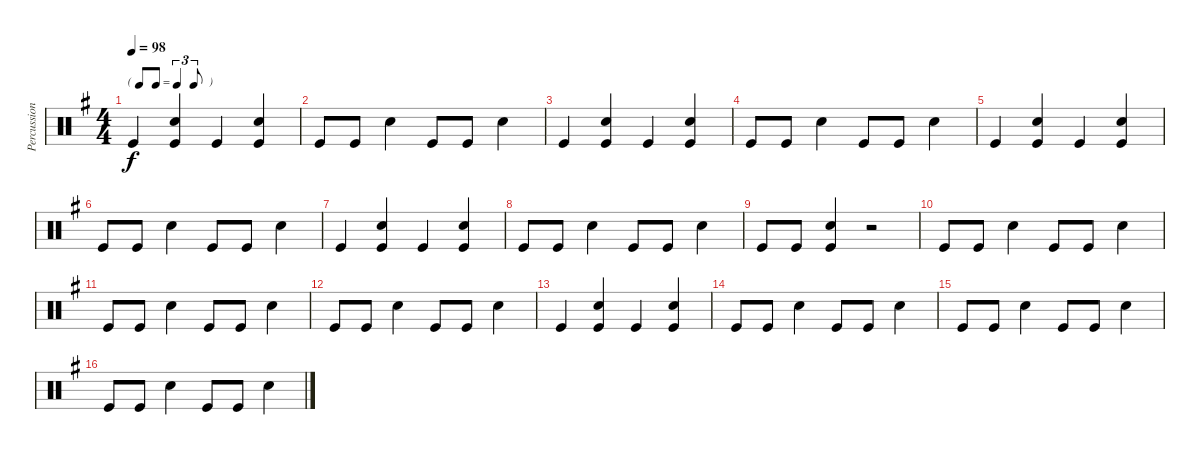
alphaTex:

\track ("Percussion" "Percussion") {instrument percussion}
\staff {score}
\articulation defaults
\ts (4 4)
\tf triplet8th
\tempo 98
\clef neutral
\ks g "Kick (hit)".4{dy f}
("Snare (hit) 2" "Kick (hit)").4 "Kick (hit)".4 ("Snare (hit) 2" "Kick (hit)").4 |
"Kick (hit)".8 "Kick (hit)".8 "Snare (hit) 2".4 "Kick (hit)".8 "Kick (hit)".8 "Snare (hit) 2".4 |
"Kick (hit)".4 ("Snare (hit) 2" "Kick (hit)").4 "Kick (hit)".4 ("Snare (hit) 2" "Kick (hit)").4 |
"Kick (hit)".8 "Kick (hit)".8 "Snare (hit) 2".4 "Kick (hit)".8 "Kick (hit)".8 "Snare (hit) 2".4 |
"Kick (hit)".4 ("Snare (hit) 2" "Kick (hit)").4 "Kick (hit)".4 ("Snare (hit) 2" "Kick (hit)").4 |
"Kick (hit)".8 "Kick (hit)".8 "Snare (hit) 2".4 "Kick (hit)".8 "Kick (hit)".8 "Snare (hit) 2".4 |
"Kick (hit)".4 ("Snare (hit) 2" "Kick (hit)").4 "Kick (hit)".4 ("Snare (hit) 2" "Kick (hit)").4 |
"Kick (hit)".8 "Kick (hit)".8 "Snare (hit) 2".4 "Kick (hit)".8 "Kick (hit)".8 "Snare (hit) 2".4 |
"Kick (hit)".8 "Kick (hit)".8 ("Snare (hit) 2" "Kick (hit)").4 r.2 |
"Kick (hit)".8 "Kick (hit)".8 "Snare (hit) 2".4 "Kick (hit)".8 "Kick (hit)".8 "Snare (hit) 2".4 |
"Kick (hit)".8 "Kick (hit)".8 "Snare (hit) 2".4 "Kick (hit)".8 "Kick (hit)".8 "Snare (hit) 2".4 |
"Kick (hit)".8 "Kick (hit)".8 "Snare (hit) 2".4 "Kick (hit)".8 "Kick (hit)".8 "Snare (hit) 2".4 |
"Kick (hit)".4 ("Snare (hit) 2" "Kick (hit)").4 "Kick (hit)".4 ("Snare (hit) 2" "Kick (hit)").4 |
"Kick (hit)".8 "Kick (hit)".8 "Snare (hit) 2".4 "Kick (hit)".8 "Kick (hit)".8 "Snare (hit) 2".4 |
"Kick (hit)".8 "Kick (hit)".8 "Snare (hit) 2".4 "Kick (hit)".8 "Kick (hit)".8 "Snare (hit) 2".4 |
"Kick (hit)".8 "Kick (hit)".8 "Snare (hit) 2".4 "Kick (hit)".8 "Kick (hit)".8 "Snare (hit) 2".4
